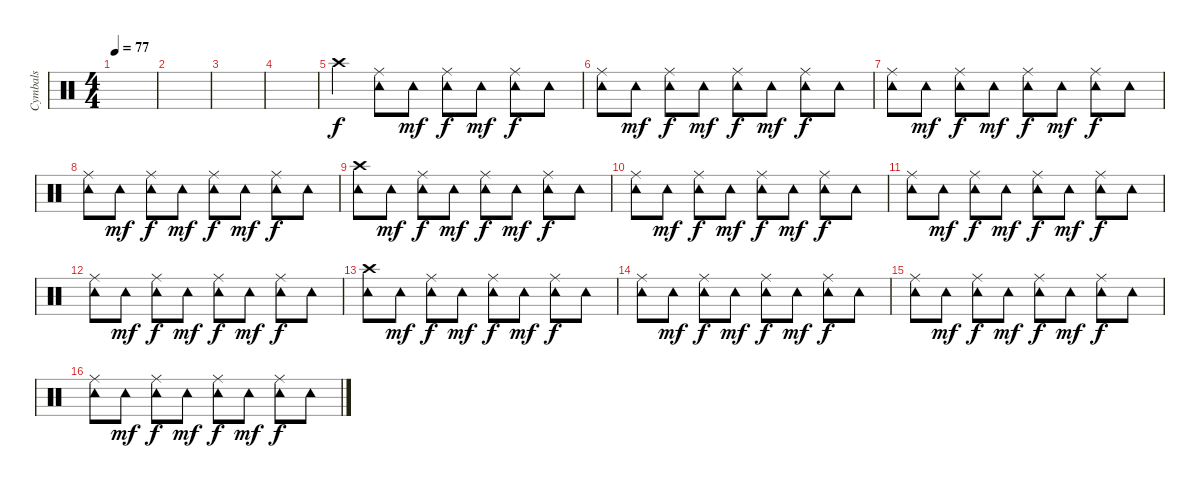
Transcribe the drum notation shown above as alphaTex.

\track ("Cymbals" "Cymbals") {instrument percussion}
\staff {score}
\articulation defaults
\ts (4 4)
\tempo 77
\clef neutral
\ks c
|
|
|
|
"Crash high (hit)".4 ("Tambourine (hit)" "Ride (middle)").8 "Tambourine (hit)".8{dy mf} ("Tambourine (hit)" "Ride (middle)").8{dy f} "Tambourine (hit)".8{dy mf} ("Tambourine (hit)" "Ride (middle)").8{dy f} "Tambourine (hit)".8 |
("Tambourine (hit)" "Ride (middle)").8 "Tambourine (hit)".8{dy mf} ("Tambourine (hit)" "Ride (middle)").8{dy f} "Tambourine (hit)".8{dy mf} ("Tambourine (hit)" "Ride (middle)").8{dy f} "Tambourine (hit)".8{dy mf} ("Tambourine (hit)" "Ride (middle)").8{dy f} "Tambourine (hit)".8 |
("Tambourine (hit)" "Ride (middle)").8 "Tambourine (hit)".8{dy mf} ("Tambourine (hit)" "Ride (middle)").8{dy f} "Tambourine (hit)".8{dy mf} ("Tambourine (hit)" "Ride (middle)").8{dy f} "Tambourine (hit)".8{dy mf} ("Tambourine (hit)" "Ride (middle)").8{dy f} "Tambourine (hit)".8 |
("Tambourine (hit)" "Ride (middle)").8 "Tambourine (hit)".8{dy mf} ("Tambourine (hit)" "Ride (middle)").8{dy f} "Tambourine (hit)".8{dy mf} ("Tambourine (hit)" "Ride (middle)").8{dy f} "Tambourine (hit)".8{dy mf} ("Tambourine (hit)" "Ride (middle)").8{dy f} "Tambourine (hit)".8 |
("Tambourine (hit)" "Crash high (hit)").8 "Tambourine (hit)".8{dy mf} ("Tambourine (hit)" "Ride (middle)").8{dy f} "Tambourine (hit)".8{dy mf} ("Tambourine (hit)" "Ride (middle)").8{dy f} "Tambourine (hit)".8{dy mf} ("Tambourine (hit)" "Ride (middle)").8{dy f} "Tambourine (hit)".8 |
("Tambourine (hit)" "Ride (middle)").8 "Tambourine (hit)".8{dy mf} ("Tambourine (hit)" "Ride (middle)").8{dy f} "Tambourine (hit)".8{dy mf} ("Tambourine (hit)" "Ride (middle)").8{dy f} "Tambourine (hit)".8{dy mf} ("Tambourine (hit)" "Ride (middle)").8{dy f} "Tambourine (hit)".8 |
("Tambourine (hit)" "Ride (middle)").8 "Tambourine (hit)".8{dy mf} ("Tambourine (hit)" "Ride (middle)").8{dy f} "Tambourine (hit)".8{dy mf} ("Tambourine (hit)" "Ride (middle)").8{dy f} "Tambourine (hit)".8{dy mf} ("Tambourine (hit)" "Ride (middle)").8{dy f} "Tambourine (hit)".8 |
("Tambourine (hit)" "Ride (middle)").8 "Tambourine (hit)".8{dy mf} ("Tambourine (hit)" "Ride (middle)").8{dy f} "Tambourine (hit)".8{dy mf} ("Tambourine (hit)" "Ride (middle)").8{dy f} "Tambourine (hit)".8{dy mf} ("Tambourine (hit)" "Ride (middle)").8{dy f} "Tambourine (hit)".8 |
("Tambourine (hit)" "Crash high (hit)").8 "Tambourine (hit)".8{dy mf} ("Tambourine (hit)" "Ride (middle)").8{dy f} "Tambourine (hit)".8{dy mf} ("Tambourine (hit)" "Ride (middle)").8{dy f} "Tambourine (hit)".8{dy mf} ("Tambourine (hit)" "Ride (middle)").8{dy f} "Tambourine (hit)".8 |
("Tambourine (hit)" "Ride (middle)").8 "Tambourine (hit)".8{dy mf} ("Tambourine (hit)" "Ride (middle)").8{dy f} "Tambourine (hit)".8{dy mf} ("Tambourine (hit)" "Ride (middle)").8{dy f} "Tambourine (hit)".8{dy mf} ("Tambourine (hit)" "Ride (middle)").8{dy f} "Tambourine (hit)".8 |
("Tambourine (hit)" "Ride (middle)").8 "Tambourine (hit)".8{dy mf} ("Tambourine (hit)" "Ride (middle)").8{dy f} "Tambourine (hit)".8{dy mf} ("Tambourine (hit)" "Ride (middle)").8{dy f} "Tambourine (hit)".8{dy mf} ("Tambourine (hit)" "Ride (middle)").8{dy f} "Tambourine (hit)".8 |
("Tambourine (hit)" "Ride (middle)").8 "Tambourine (hit)".8{dy mf} ("Tambourine (hit)" "Ride (middle)").8{dy f} "Tambourine (hit)".8{dy mf} ("Tambourine (hit)" "Ride (middle)").8{dy f} "Tambourine (hit)".8{dy mf} ("Tambourine (hit)" "Ride (middle)").8{dy f} "Tambourine (hit)".8
